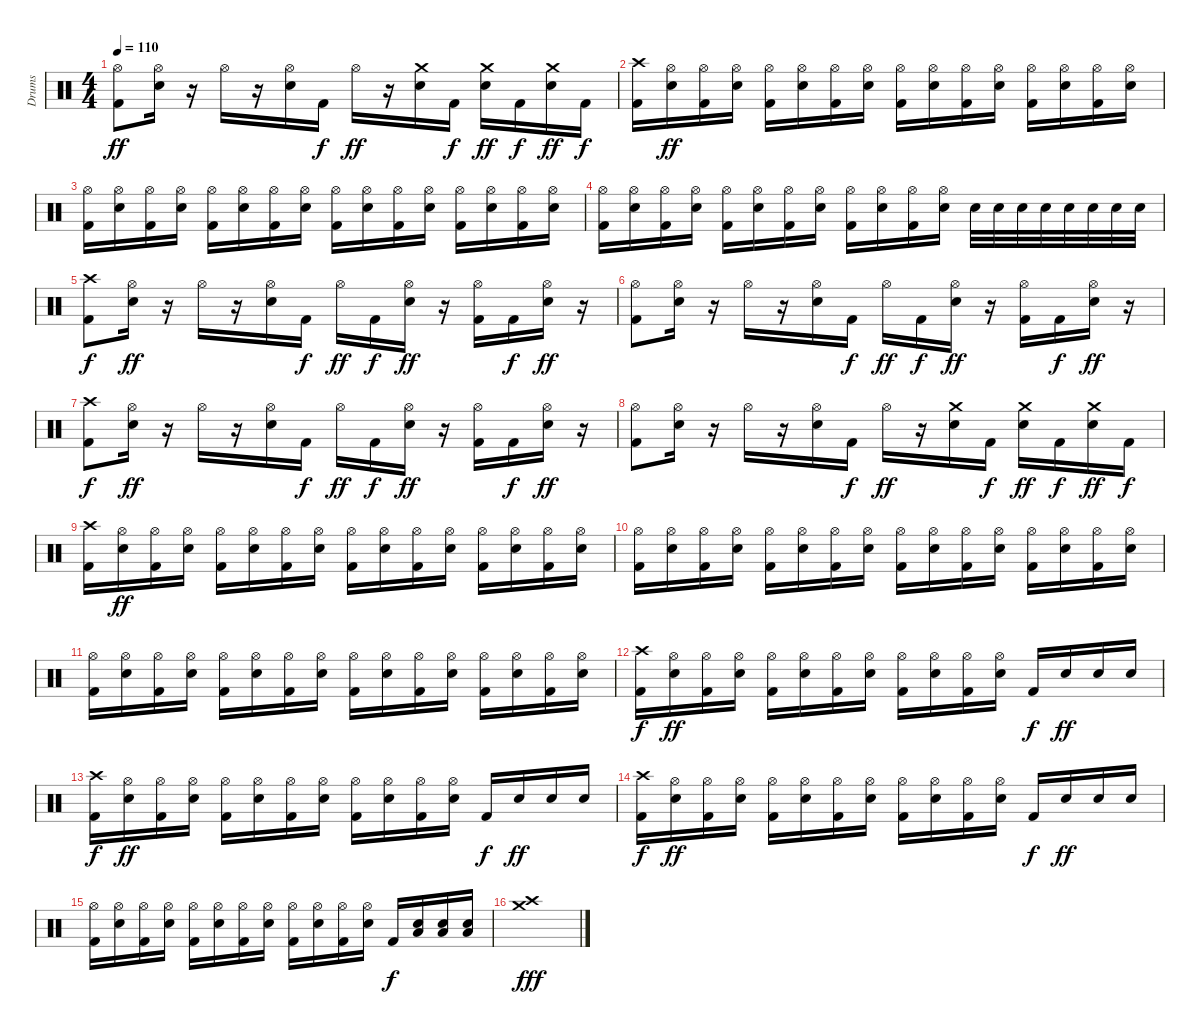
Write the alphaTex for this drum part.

\track ("Drums" "Drums") {instrument percussion}
\staff {score}
\articulation defaults
\ts (4 4)
\tempo 110
\clef neutral
\ks c
("Hi-Hat (open)" "Kick (hit) 2").8{dy ff} ("Hi-Hat (open)" "Snare (hit) 2").16 r.16 "Hi-Hat (open)".16 r.16 ("Hi-Hat (open)" "Snare (hit) 2").16 "Kick (hit) 2".16{dy f} "Hi-Hat (open)".16{dy ff} r.16 ("Crash medium (hit)" "Snare (hit) 2").16 "Kick (hit) 2".16{dy f} ("Crash medium (hit)" "Snare (hit) 2").16{dy ff} "Kick (hit) 2".16{dy f} ("Crash medium (hit)" "Snare (hit) 2").16{dy ff} "Kick (hit) 2".16{dy f} |
("Crash high (hit)" "Kick (hit) 2").16 ("Hi-Hat (open)" "Snare (hit) 2").16{dy ff} ("Hi-Hat (open)" "Kick (hit) 2").16 ("Hi-Hat (open)" "Snare (hit) 2").16 ("Hi-Hat (open)" "Kick (hit) 2").16 ("Hi-Hat (open)" "Snare (hit) 2").16 ("Hi-Hat (open)" "Kick (hit) 2").16 ("Hi-Hat (open)" "Snare (hit) 2").16 ("Hi-Hat (open)" "Kick (hit) 2").16 ("Hi-Hat (open)" "Snare (hit) 2").16 ("Hi-Hat (open)" "Kick (hit) 2").16 ("Hi-Hat (open)" "Snare (hit) 2").16 ("Hi-Hat (open)" "Kick (hit) 2").16 ("Hi-Hat (open)" "Snare (hit) 2").16 ("Hi-Hat (open)" "Kick (hit) 2").16 ("Hi-Hat (open)" "Snare (hit) 2").16 |
("Hi-Hat (open)" "Kick (hit) 2").16 ("Hi-Hat (open)" "Snare (hit) 2").16 ("Hi-Hat (open)" "Kick (hit) 2").16 ("Hi-Hat (open)" "Snare (hit) 2").16 ("Hi-Hat (open)" "Kick (hit) 2").16 ("Hi-Hat (open)" "Snare (hit) 2").16 ("Hi-Hat (open)" "Kick (hit) 2").16 ("Hi-Hat (open)" "Snare (hit) 2").16 ("Hi-Hat (open)" "Kick (hit) 2").16 ("Hi-Hat (open)" "Snare (hit) 2").16 ("Hi-Hat (open)" "Kick (hit) 2").16 ("Hi-Hat (open)" "Snare (hit) 2").16 ("Hi-Hat (open)" "Kick (hit) 2").16 ("Hi-Hat (open)" "Snare (hit) 2").16 ("Hi-Hat (open)" "Kick (hit) 2").16 ("Hi-Hat (open)" "Snare (hit) 2").16 |
("Hi-Hat (open)" "Kick (hit) 2").16 ("Hi-Hat (open)" "Snare (hit) 2").16 ("Hi-Hat (open)" "Kick (hit) 2").16 ("Hi-Hat (open)" "Snare (hit) 2").16 ("Hi-Hat (open)" "Kick (hit) 2").16 ("Hi-Hat (open)" "Snare (hit) 2").16 ("Hi-Hat (open)" "Kick (hit) 2").16 ("Hi-Hat (open)" "Snare (hit) 2").16 ("Hi-Hat (open)" "Kick (hit) 2").16 ("Hi-Hat (open)" "Snare (hit) 2").16 ("Hi-Hat (open)" "Kick (hit) 2").16 ("Hi-Hat (open)" "Snare (hit) 2").16 "Snare (hit) 2".32 "Snare (hit) 2".32 "Snare (hit) 2".32 "Snare (hit) 2".32 "Snare (hit) 2".32 "Snare (hit) 2".32 "Snare (hit) 2".32 "Snare (hit) 2".32 |
("Crash high (hit)" "Kick (hit) 2").8{dy f} ("Hi-Hat (open)" "Snare (hit) 2").16{dy ff} r.16 "Hi-Hat (open)".16 r.16 ("Hi-Hat (open)" "Snare (hit) 2").16 "Kick (hit) 2".16{dy f} "Hi-Hat (open)".16{dy ff} "Kick (hit) 2".16{dy f} ("Hi-Hat (open)" "Snare (hit) 2").16{dy ff} r.16 ("Hi-Hat (open)" "Kick (hit) 2").16 "Kick (hit) 2".16{dy f} ("Hi-Hat (open)" "Snare (hit) 2").16{dy ff} r.16 |
("Hi-Hat (open)" "Kick (hit) 2").8 ("Hi-Hat (open)" "Snare (hit) 2").16 r.16 "Hi-Hat (open)".16 r.16 ("Hi-Hat (open)" "Snare (hit) 2").16 "Kick (hit) 2".16{dy f} "Hi-Hat (open)".16{dy ff} "Kick (hit) 2".16{dy f} ("Hi-Hat (open)" "Snare (hit) 2").16{dy ff} r.16 ("Hi-Hat (open)" "Kick (hit) 2").16 "Kick (hit) 2".16{dy f} ("Hi-Hat (open)" "Snare (hit) 2").16{dy ff} r.16 |
("Crash high (hit)" "Kick (hit) 2").8{dy f} ("Hi-Hat (open)" "Snare (hit) 2").16{dy ff} r.16 "Hi-Hat (open)".16 r.16 ("Hi-Hat (open)" "Snare (hit) 2").16 "Kick (hit) 2".16{dy f} "Hi-Hat (open)".16{dy ff} "Kick (hit) 2".16{dy f} ("Hi-Hat (open)" "Snare (hit) 2").16{dy ff} r.16 ("Hi-Hat (open)" "Kick (hit) 2").16 "Kick (hit) 2".16{dy f} ("Hi-Hat (open)" "Snare (hit) 2").16{dy ff} r.16 |
("Hi-Hat (open)" "Kick (hit) 2").8 ("Hi-Hat (open)" "Snare (hit) 2").16 r.16 "Hi-Hat (open)".16 r.16 ("Hi-Hat (open)" "Snare (hit) 2").16 "Kick (hit) 2".16{dy f} "Hi-Hat (open)".16{dy ff} r.16 ("Crash medium (hit)" "Snare (hit) 2").16 "Kick (hit) 2".16{dy f} ("Crash medium (hit)" "Snare (hit) 2").16{dy ff} "Kick (hit) 2".16{dy f} ("Crash medium (hit)" "Snare (hit) 2").16{dy ff} "Kick (hit) 2".16{dy f} |
("Crash high (hit)" "Kick (hit) 2").16 ("Hi-Hat (open)" "Snare (hit) 2").16{dy ff} ("Hi-Hat (open)" "Kick (hit) 2").16 ("Hi-Hat (open)" "Snare (hit) 2").16 ("Hi-Hat (open)" "Kick (hit) 2").16 ("Hi-Hat (open)" "Snare (hit) 2").16 ("Hi-Hat (open)" "Kick (hit) 2").16 ("Hi-Hat (open)" "Snare (hit) 2").16 ("Hi-Hat (open)" "Kick (hit) 2").16 ("Hi-Hat (open)" "Snare (hit) 2").16 ("Hi-Hat (open)" "Kick (hit) 2").16 ("Hi-Hat (open)" "Snare (hit) 2").16 ("Hi-Hat (open)" "Kick (hit) 2").16 ("Hi-Hat (open)" "Snare (hit) 2").16 ("Hi-Hat (open)" "Kick (hit) 2").16 ("Hi-Hat (open)" "Snare (hit) 2").16 |
("Hi-Hat (open)" "Kick (hit) 2").16 ("Hi-Hat (open)" "Snare (hit) 2").16 ("Hi-Hat (open)" "Kick (hit) 2").16 ("Hi-Hat (open)" "Snare (hit) 2").16 ("Hi-Hat (open)" "Kick (hit) 2").16 ("Hi-Hat (open)" "Snare (hit) 2").16 ("Hi-Hat (open)" "Kick (hit) 2").16 ("Hi-Hat (open)" "Snare (hit) 2").16 ("Hi-Hat (open)" "Kick (hit) 2").16 ("Hi-Hat (open)" "Snare (hit) 2").16 ("Hi-Hat (open)" "Kick (hit) 2").16 ("Hi-Hat (open)" "Snare (hit) 2").16 ("Hi-Hat (open)" "Kick (hit) 2").16 ("Hi-Hat (open)" "Snare (hit) 2").16 ("Hi-Hat (open)" "Kick (hit) 2").16 ("Hi-Hat (open)" "Snare (hit) 2").16 |
("Hi-Hat (open)" "Kick (hit) 2").16 ("Hi-Hat (open)" "Snare (hit) 2").16 ("Hi-Hat (open)" "Kick (hit) 2").16 ("Hi-Hat (open)" "Snare (hit) 2").16 ("Hi-Hat (open)" "Kick (hit) 2").16 ("Hi-Hat (open)" "Snare (hit) 2").16 ("Hi-Hat (open)" "Kick (hit) 2").16 ("Hi-Hat (open)" "Snare (hit) 2").16 ("Hi-Hat (open)" "Kick (hit) 2").16 ("Hi-Hat (open)" "Snare (hit) 2").16 ("Hi-Hat (open)" "Kick (hit) 2").16 ("Hi-Hat (open)" "Snare (hit) 2").16 ("Hi-Hat (open)" "Kick (hit) 2").16 ("Hi-Hat (open)" "Snare (hit) 2").16 ("Hi-Hat (open)" "Kick (hit) 2").16 ("Hi-Hat (open)" "Snare (hit) 2").16 |
("Crash high (hit)" "Kick (hit) 2").16{dy f} ("Hi-Hat (open)" "Snare (hit) 2").16{dy ff} ("Hi-Hat (open)" "Kick (hit) 2").16 ("Hi-Hat (open)" "Snare (hit) 2").16 ("Hi-Hat (open)" "Kick (hit) 2").16 ("Hi-Hat (open)" "Snare (hit) 2").16 ("Hi-Hat (open)" "Kick (hit) 2").16 ("Hi-Hat (open)" "Snare (hit) 2").16 ("Hi-Hat (open)" "Kick (hit) 2").16 ("Hi-Hat (open)" "Snare (hit) 2").16 ("Hi-Hat (open)" "Kick (hit) 2").16 ("Hi-Hat (open)" "Snare (hit) 2").16 "Kick (hit) 2".16{dy f} "Snare (hit) 2".16{dy ff} "Snare (hit) 2".16 "Snare (hit) 2".16 |
("Crash high (hit)" "Kick (hit) 2").16{dy f} ("Hi-Hat (open)" "Snare (hit) 2").16{dy ff} ("Hi-Hat (open)" "Kick (hit) 2").16 ("Hi-Hat (open)" "Snare (hit) 2").16 ("Hi-Hat (open)" "Kick (hit) 2").16 ("Hi-Hat (open)" "Snare (hit) 2").16 ("Hi-Hat (open)" "Kick (hit) 2").16 ("Hi-Hat (open)" "Snare (hit) 2").16 ("Hi-Hat (open)" "Kick (hit) 2").16 ("Hi-Hat (open)" "Snare (hit) 2").16 ("Hi-Hat (open)" "Kick (hit) 2").16 ("Hi-Hat (open)" "Snare (hit) 2").16 "Kick (hit) 2".16{dy f} "Snare (hit) 2".16{dy ff} "Snare (hit) 2".16 "Snare (hit) 2".16 |
("Crash high (hit)" "Kick (hit) 2").16{dy f} ("Hi-Hat (open)" "Snare (hit) 2").16{dy ff} ("Hi-Hat (open)" "Kick (hit) 2").16 ("Hi-Hat (open)" "Snare (hit) 2").16 ("Hi-Hat (open)" "Kick (hit) 2").16 ("Hi-Hat (open)" "Snare (hit) 2").16 ("Hi-Hat (open)" "Kick (hit) 2").16 ("Hi-Hat (open)" "Snare (hit) 2").16 ("Hi-Hat (open)" "Kick (hit) 2").16 ("Hi-Hat (open)" "Snare (hit) 2").16 ("Hi-Hat (open)" "Kick (hit) 2").16 ("Hi-Hat (open)" "Snare (hit) 2").16 "Kick (hit) 2".16{dy f} "Snare (hit) 2".16{dy ff} "Snare (hit) 2".16 "Snare (hit) 2".16 |
("Hi-Hat (open)" "Kick (hit) 2").16 ("Hi-Hat (open)" "Snare (hit) 2").16 ("Hi-Hat (open)" "Kick (hit) 2").16 ("Hi-Hat (open)" "Snare (hit) 2").16 ("Hi-Hat (open)" "Kick (hit) 2").16 ("Hi-Hat (open)" "Snare (hit) 2").16 ("Hi-Hat (open)" "Kick (hit) 2").16 ("Hi-Hat (open)" "Snare (hit) 2").16 ("Hi-Hat (open)" "Kick (hit) 2").16 ("Hi-Hat (open)" "Snare (hit) 2").16 ("Hi-Hat (open)" "Kick (hit) 2").16 ("Hi-Hat (open)" "Snare (hit) 2").16 "Kick (hit) 2".16{dy f} ("Low Floor Tom (hit)" "Snare (hit) 2").16 ("Low Floor Tom (hit)" "Snare (hit) 2").16 ("Low Floor Tom (hit)" "Snare (hit) 2").16 |
("Crash high (hit)" "Crash medium (hit)").1{dy fff}
